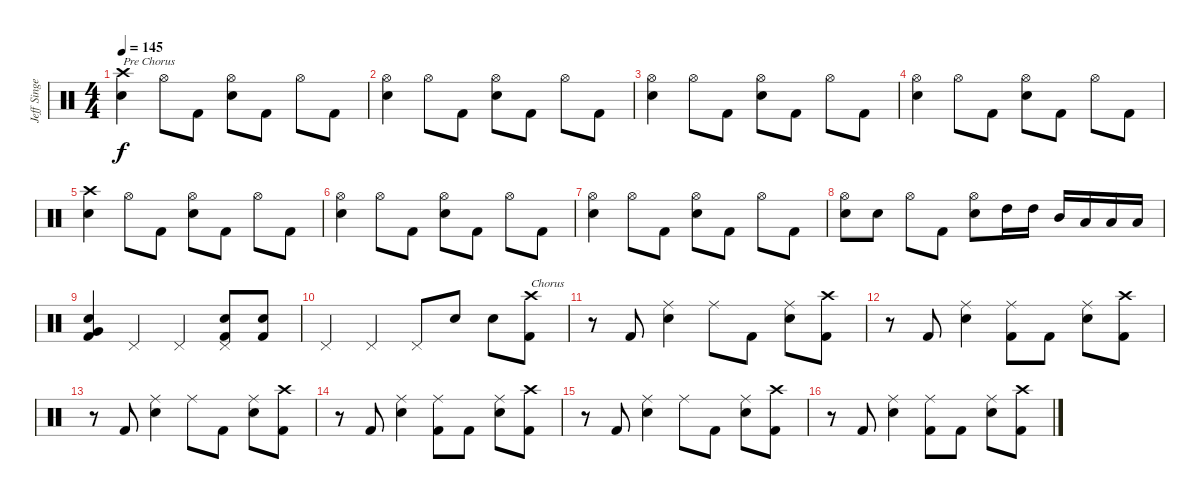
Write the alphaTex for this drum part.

\track ("Jeff Singer" "Jeff Singe") {instrument percussion}
\staff {score}
\articulation defaults
\ts (4 4)
\tempo 145
\clef neutral
\ks c
("Crash high (hit)" "Electric Snare (hit)").4{txt "Pre Chorus" dy f} "Hi-Hat (open)".8 "Kick (hit) 2".8 ("Hi-Hat (open)" "Electric Snare (hit)").8 "Kick (hit) 2".8 "Hi-Hat (open)".8 "Kick (hit) 2".8 |
("Hi-Hat (open)" "Electric Snare (hit)").4 "Hi-Hat (open)".8 "Kick (hit) 2".8 ("Hi-Hat (open)" "Electric Snare (hit)").8 "Kick (hit) 2".8 "Hi-Hat (open)".8 "Kick (hit) 2".8 |
("Hi-Hat (open)" "Electric Snare (hit)").4 "Hi-Hat (open)".8 "Kick (hit) 2".8 ("Hi-Hat (open)" "Electric Snare (hit)").8 "Kick (hit) 2".8 "Hi-Hat (open)".8 "Kick (hit) 2".8 |
("Hi-Hat (open)" "Electric Snare (hit)").4 "Hi-Hat (open)".8 "Kick (hit) 2".8 ("Hi-Hat (open)" "Electric Snare (hit)").8 "Kick (hit) 2".8 "Hi-Hat (open)".8 "Kick (hit) 2".8 |
("Crash high (hit)" "Electric Snare (hit)").4 "Hi-Hat (open)".8 "Kick (hit) 2".8 ("Hi-Hat (open)" "Electric Snare (hit)").8 "Kick (hit) 2".8 "Hi-Hat (open)".8 "Kick (hit) 2".8 |
("Hi-Hat (open)" "Electric Snare (hit)").4 "Hi-Hat (open)".8 "Kick (hit) 2".8 ("Hi-Hat (open)" "Electric Snare (hit)").8 "Kick (hit) 2".8 "Hi-Hat (open)".8 "Kick (hit) 2".8 |
("Hi-Hat (open)" "Electric Snare (hit)").4 "Hi-Hat (open)".8 "Kick (hit) 2".8 ("Hi-Hat (open)" "Electric Snare (hit)").8 "Kick (hit) 2".8 "Hi-Hat (open)".8 "Kick (hit) 2".8 |
("Hi-Hat (open)" "Electric Snare (hit)").8 "Electric Snare (hit)".8 "Hi-Hat (open)".8 "Kick (hit) 2".8 ("Hi-Hat (open)" "Electric Snare (hit)").8 "High Tom (hit)".16 "High Tom (hit)".16 "Mid Tom (hit)".16 "Low Tom (hit)".16 "Low Tom (hit)".16 "Low Tom (hit)".16 |
("Very Low Tom (hit)" "Electric Snare (hit)" "Kick (hit) 2").4 "Pedal Hi-Hat (hit)".4 "Pedal Hi-Hat (hit)".4 ("Pedal Hi-Hat (hit)" "Electric Snare (hit)" "Kick (hit) 2").8 ("Electric Snare (hit)" "Kick (hit) 2").8 |
"Pedal Hi-Hat (hit)".4 "Pedal Hi-Hat (hit)".4 "Pedal Hi-Hat (hit)".8 "Electric Snare (hit)".8 "Electric Snare (hit)".8 ("Crash high (hit)" "Kick (hit) 2").8{txt "Chorus"} |
r.8 "Kick (hit) 2".8 ("Ride (middle)" "Electric Snare (hit)").4 "Ride (middle)".8 "Kick (hit) 2".8 ("Ride (middle)" "Electric Snare (hit)").8 ("Crash high (hit)" "Kick (hit) 2").8 |
r.8 "Kick (hit) 2".8 ("Ride (middle)" "Electric Snare (hit)").4 ("Ride (middle)" "Kick (hit) 2").8 "Kick (hit) 2".8 ("Ride (middle)" "Electric Snare (hit)").8 ("Crash high (hit)" "Kick (hit) 2").8 |
r.8 "Kick (hit) 2".8 ("Ride (middle)" "Electric Snare (hit)").4 "Ride (middle)".8 "Kick (hit) 2".8 ("Ride (middle)" "Electric Snare (hit)").8 ("Crash high (hit)" "Kick (hit) 2").8 |
r.8 "Kick (hit) 2".8 ("Ride (middle)" "Electric Snare (hit)").4 ("Ride (middle)" "Kick (hit) 2").8 "Kick (hit) 2".8 ("Ride (middle)" "Electric Snare (hit)").8 ("Crash high (hit)" "Kick (hit) 2").8 |
r.8 "Kick (hit) 2".8 ("Ride (middle)" "Electric Snare (hit)").4 "Ride (middle)".8 "Kick (hit) 2".8 ("Ride (middle)" "Electric Snare (hit)").8 ("Crash high (hit)" "Kick (hit) 2").8 |
r.8 "Kick (hit) 2".8 ("Ride (middle)" "Electric Snare (hit)").4 ("Ride (middle)" "Kick (hit) 2").8 "Kick (hit) 2".8 ("Ride (middle)" "Electric Snare (hit)").8 ("Crash high (hit)" "Kick (hit) 2").8
